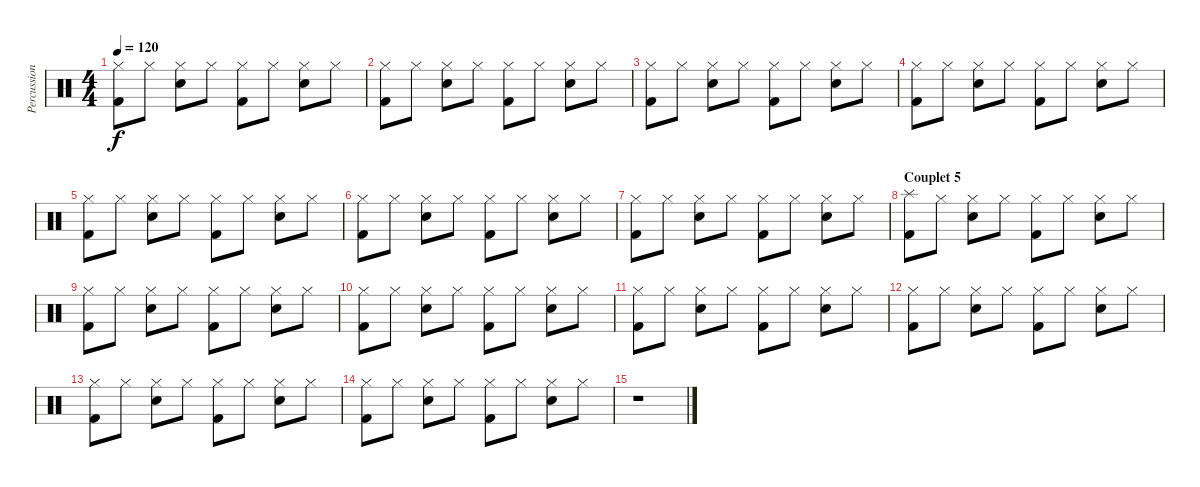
\track ("Percussions" "Percussion") {instrument percussion}
\staff {score}
\articulation defaults
\ts (4 4)
\tempo 120
\clef neutral
\ks c
("Kick (hit) 2" "Hi-Hat (closed)").8{dy f} "Hi-Hat (closed)".8 ("Electric Snare (hit)" "Hi-Hat (closed)").8 "Hi-Hat (closed)".8 ("Kick (hit) 2" "Hi-Hat (closed)").8 "Hi-Hat (closed)".8 ("Electric Snare (hit)" "Hi-Hat (closed)").8 "Hi-Hat (closed)".8 |
("Kick (hit) 2" "Hi-Hat (closed)").8 "Hi-Hat (closed)".8 ("Electric Snare (hit)" "Hi-Hat (closed)").8 "Hi-Hat (closed)".8 ("Kick (hit) 2" "Hi-Hat (closed)").8 "Hi-Hat (closed)".8 ("Electric Snare (hit)" "Hi-Hat (closed)").8 "Hi-Hat (closed)".8 |
("Kick (hit) 2" "Hi-Hat (closed)").8 "Hi-Hat (closed)".8 ("Electric Snare (hit)" "Hi-Hat (closed)").8 "Hi-Hat (closed)".8 ("Kick (hit) 2" "Hi-Hat (closed)").8 "Hi-Hat (closed)".8 ("Electric Snare (hit)" "Hi-Hat (closed)").8 "Hi-Hat (closed)".8 |
("Kick (hit) 2" "Hi-Hat (closed)").8 "Hi-Hat (closed)".8 ("Electric Snare (hit)" "Hi-Hat (closed)").8 "Hi-Hat (closed)".8 ("Kick (hit) 2" "Hi-Hat (closed)").8 "Hi-Hat (closed)".8 ("Electric Snare (hit)" "Hi-Hat (closed)").8 "Hi-Hat (closed)".8 |
("Kick (hit) 2" "Hi-Hat (closed)").8 "Hi-Hat (closed)".8 ("Electric Snare (hit)" "Hi-Hat (closed)").8 "Hi-Hat (closed)".8 ("Kick (hit) 2" "Hi-Hat (closed)").8 "Hi-Hat (closed)".8 ("Electric Snare (hit)" "Hi-Hat (closed)").8 "Hi-Hat (closed)".8 |
("Kick (hit) 2" "Hi-Hat (closed)").8 "Hi-Hat (closed)".8 ("Electric Snare (hit)" "Hi-Hat (closed)").8 "Hi-Hat (closed)".8 ("Kick (hit) 2" "Hi-Hat (closed)").8 "Hi-Hat (closed)".8 ("Electric Snare (hit)" "Hi-Hat (closed)").8 "Hi-Hat (closed)".8 |
("Kick (hit) 2" "Hi-Hat (closed)").8 "Hi-Hat (closed)".8 ("Electric Snare (hit)" "Hi-Hat (closed)").8 "Hi-Hat (closed)".8 ("Kick (hit) 2" "Hi-Hat (closed)").8 "Hi-Hat (closed)".8 ("Electric Snare (hit)" "Hi-Hat (closed)").8 "Hi-Hat (closed)".8 |
\section ("" "Couplet 5")
("Kick (hit) 2" "Splash (hit)").8 "Hi-Hat (closed)".8 ("Electric Snare (hit)" "Hi-Hat (closed)").8 "Hi-Hat (closed)".8 ("Kick (hit) 2" "Hi-Hat (closed)").8 "Hi-Hat (closed)".8 ("Electric Snare (hit)" "Hi-Hat (closed)").8 "Hi-Hat (closed)".8 |
("Kick (hit) 2" "Hi-Hat (closed)").8 "Hi-Hat (closed)".8 ("Electric Snare (hit)" "Hi-Hat (closed)").8 "Hi-Hat (closed)".8 ("Kick (hit) 2" "Hi-Hat (closed)").8 "Hi-Hat (closed)".8 ("Electric Snare (hit)" "Hi-Hat (closed)").8 "Hi-Hat (closed)".8 |
("Kick (hit) 2" "Hi-Hat (closed)").8 "Hi-Hat (closed)".8 ("Electric Snare (hit)" "Hi-Hat (closed)").8 "Hi-Hat (closed)".8 ("Kick (hit) 2" "Hi-Hat (closed)").8 "Hi-Hat (closed)".8 ("Electric Snare (hit)" "Hi-Hat (closed)").8 "Hi-Hat (closed)".8 |
("Kick (hit) 2" "Hi-Hat (closed)").8 "Hi-Hat (closed)".8 ("Electric Snare (hit)" "Hi-Hat (closed)").8 "Hi-Hat (closed)".8 ("Kick (hit) 2" "Hi-Hat (closed)").8 "Hi-Hat (closed)".8 ("Electric Snare (hit)" "Hi-Hat (closed)").8 "Hi-Hat (closed)".8 |
("Kick (hit) 2" "Hi-Hat (closed)").8 "Hi-Hat (closed)".8 ("Electric Snare (hit)" "Hi-Hat (closed)").8 "Hi-Hat (closed)".8 ("Kick (hit) 2" "Hi-Hat (closed)").8 "Hi-Hat (closed)".8 ("Electric Snare (hit)" "Hi-Hat (closed)").8 "Hi-Hat (closed)".8 |
("Kick (hit) 2" "Hi-Hat (closed)").8 "Hi-Hat (closed)".8 ("Electric Snare (hit)" "Hi-Hat (closed)").8 "Hi-Hat (closed)".8 ("Kick (hit) 2" "Hi-Hat (closed)").8 "Hi-Hat (closed)".8 ("Electric Snare (hit)" "Hi-Hat (closed)").8 "Hi-Hat (closed)".8 |
("Kick (hit) 2" "Hi-Hat (closed)").8 "Hi-Hat (closed)".8 ("Electric Snare (hit)" "Hi-Hat (closed)").8 "Hi-Hat (closed)".8 ("Kick (hit) 2" "Hi-Hat (closed)").8 "Hi-Hat (closed)".8 ("Electric Snare (hit)" "Hi-Hat (closed)").8 "Hi-Hat (closed)".8 |
r.1
